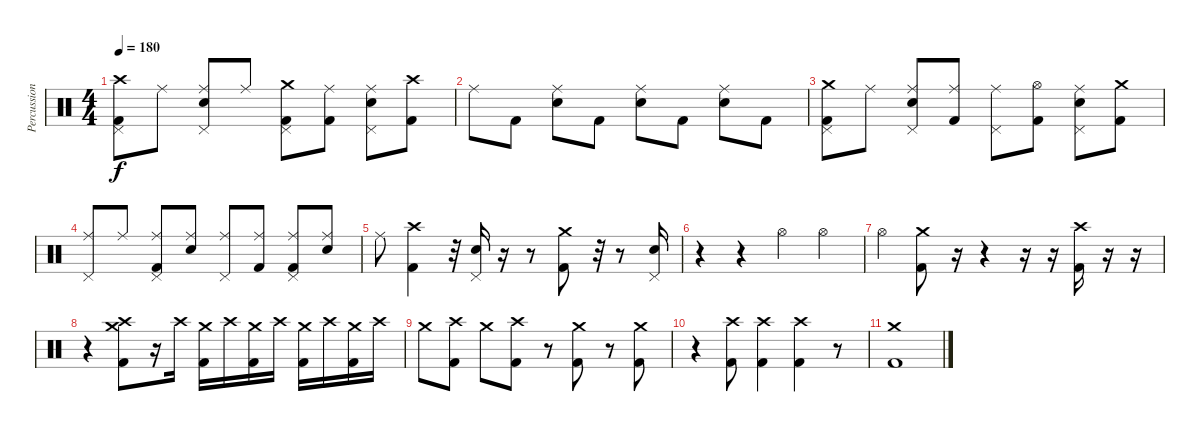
\track ("Percussion" "Percussion") {instrument percussion}
\staff {score}
\articulation defaults
\ts (4 4)
\tempo 180
\clef neutral
\ks c
("Crash high (hit)" "Pedal Hi-Hat (hit)" "Kick (hit) 2").8{dy f} "Ride (middle)".8 ("Ride (middle)" "Pedal Hi-Hat (hit)" "Electric Snare (hit)").8 "Ride (middle)".8 ("Crash medium (hit)" "Pedal Hi-Hat (hit)" "Kick (hit) 2").8 ("Ride (middle)" "Kick (hit) 2").8 ("Ride (middle)" "Pedal Hi-Hat (hit)" "Electric Snare (hit)").8 ("Crash high (hit)" "Kick (hit) 2").8 |
"Ride (middle)".8 "Kick (hit) 2".8 ("Ride (middle)" "Electric Snare (hit)").8 "Kick (hit) 2".8 ("Ride (middle)" "Electric Snare (hit)").8 "Kick (hit) 2".8 ("Ride (middle)" "Electric Snare (hit)").8 "Kick (hit) 2".8 |
("Crash medium (hit)" "Pedal Hi-Hat (hit)" "Kick (hit) 2").8 "Ride (middle)".8 ("Ride (middle)" "Pedal Hi-Hat (hit)" "Electric Snare (hit)").8 ("Ride (middle)" "Kick (hit) 2").8 ("Ride (middle)" "Pedal Hi-Hat (hit)").8 ("Hi-Hat (open)" "Kick (hit) 2").8 ("Ride (middle)" "Pedal Hi-Hat (hit)" "Electric Snare (hit)").8 ("Crash medium (hit)" "Kick (hit) 2").8 |
("Ride (middle)" "Pedal Hi-Hat (hit)").8 "Ride (middle)".8 ("Ride (middle)" "Pedal Hi-Hat (hit)" "Kick (hit) 2").8 ("Ride (middle)" "Electric Snare (hit)").8 ("Ride (middle)" "Pedal Hi-Hat (hit)").8 ("Ride (middle)" "Kick (hit) 2").8 ("Ride (middle)" "Pedal Hi-Hat (hit)" "Kick (hit) 2").8 ("Ride (middle)" "Electric Snare (hit)").8 |
"Ride (middle)".8 ("Crash high (hit)" "Kick (hit) 2").4 r.32 ("Pedal Hi-Hat (hit)" "Electric Snare (hit)").16 r.16 r.8 ("Crash medium (hit)" "Kick (hit) 2").8 r.32 r.8 ("Pedal Hi-Hat (hit)" "Electric Snare (hit)").16 |
r.4 r.4 "Hi-Hat (open)".4 "Hi-Hat (open)".4 |
"Hi-Hat (open)".4 ("Crash medium (hit)" "Kick (hit) 2").8 r.16 r.4 r.16 r.16 ("Crash high (hit)" "Kick (hit) 2").16 r.16 r.16 |
r.4 ("Crash medium (hit)" "Crash high (hit)" "Kick (hit) 2").8 r.16 "Crash high (hit)".16 ("Crash medium (hit)" "Kick (hit) 2").16 "Crash high (hit)".16 ("Crash medium (hit)" "Kick (hit) 2").16 "Crash high (hit)".16 ("Crash medium (hit)" "Kick (hit) 2").16 "Crash high (hit)".16 ("Crash medium (hit)" "Kick (hit) 2").16 "Crash high (hit)".16 |
"Crash medium (hit)".8 ("Crash high (hit)" "Kick (hit) 2").8 "Crash medium (hit)".8 ("Crash high (hit)" "Kick (hit) 2").8 r.8 ("Crash medium (hit)" "Kick (hit) 2").8 r.8 ("Crash medium (hit)" "Kick (hit) 2").8 |
r.4 ("Crash high (hit)" "Kick (hit) 2").8 ("Crash high (hit)" "Kick (hit) 2").4 ("Crash high (hit)" "Kick (hit) 2").4 r.8 |
("Crash medium (hit)" "Kick (hit) 2").1
